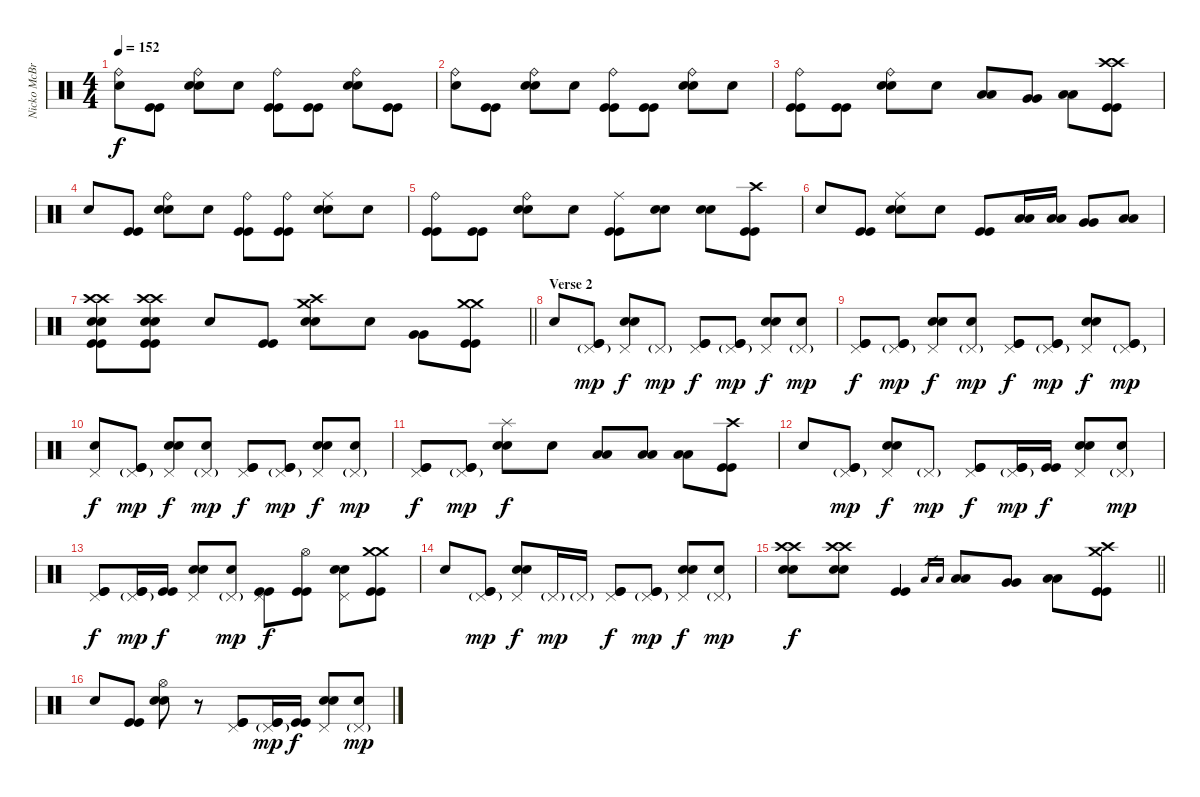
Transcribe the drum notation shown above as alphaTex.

\track ("Nicko McBrain" "Nicko McBr") {instrument percussion}
\staff {score}
\articulation defaults
\ts (4 4)
\tempo 152
\clef neutral
\ks c
("Ride (bell)" "Snare (hit)").8{dy f} ("Kick (hit)" "Kick (hit)").8 ("Ride (bell)" "Electric Snare (hit)" "Electric Snare (hit)").8 "Snare (hit)".8 ("Ride (bell)" "Kick (hit)" "Kick (hit)").8 ("Kick (hit)" "Kick (hit)").8 ("Ride (bell)" "Electric Snare (hit)" "Electric Snare (hit)").8 ("Kick (hit)" "Kick (hit)").8 |
("Ride (bell)" "Snare (hit)").8 ("Kick (hit)" "Kick (hit)").8 ("Ride (bell)" "Electric Snare (hit)" "Electric Snare (hit)").8 "Snare (hit)".8 ("Ride (bell)" "Kick (hit)" "Kick (hit)").8 ("Kick (hit)" "Kick (hit)").8 ("Ride (bell)" "Electric Snare (hit)" "Electric Snare (hit)").8 "Snare (hit)".8 |
("Ride (bell)" "Kick (hit)" "Kick (hit)").8 ("Kick (hit)" "Kick (hit)").8 ("Ride (bell)" "Electric Snare (hit)" "Electric Snare (hit)").8 "Snare (hit)".8 ("Low Tom (hit)" "Low Tom (hit)").8 ("Very Low Tom (hit)" "Very Low Tom (hit)").8 ("Low Floor Tom (hit)" "Low Floor Tom (hit)").8 ("Crash high (hit)" "Crash high (hit)" "Kick (hit)" "Kick (hit)").8 |
"Snare (hit)".8 ("Kick (hit)" "Kick (hit)").8 ("Ride (bell)" "Electric Snare (hit)" "Electric Snare (hit)").8 "Snare (hit)".8 ("Ride (bell)" "Kick (hit)" "Kick (hit)").8 ("Ride (bell)" "Kick (hit)" "Kick (hit)").8 ("Ride (middle)" "Electric Snare (hit)" "Electric Snare (hit)").8 "Snare (hit)".8 |
("Ride (bell)" "Kick (hit)" "Kick (hit)").8 ("Kick (hit)" "Kick (hit)").8 ("Ride (bell)" "Electric Snare (hit)" "Electric Snare (hit)").8 "Snare (hit)".8 ("Ride (middle)" "Kick (hit)" "Kick (hit)").8 ("Electric Snare (hit)" "Electric Snare (hit)").8 ("Electric Snare (hit)" "Electric Snare (hit)").8 ("Crash high (hit)" "Kick (hit)" "Kick (hit)").8 |
"Snare (hit)".8 ("Kick (hit)" "Kick (hit)").8 ("Ride (middle)" "Electric Snare (hit)" "Electric Snare (hit)").8 "Snare (hit)".8 ("Kick (hit)" "Kick (hit)").8 ("Low Tom (hit)" "Low Tom (hit)").16 ("Low Tom (hit)" "Low Tom (hit)").16 ("Very Low Tom (hit)" "Very Low Tom (hit)").8 ("Low Floor Tom (hit)" "Low Floor Tom (hit)").8 |
\barLineRight lightlight
("Crash high (hit)" "Crash high (hit)" "Electric Snare (hit)" "Electric Snare (hit)" "Kick (hit)" "Kick (hit)").8 ("Crash high (hit)" "Crash high (hit)" "Electric Snare (hit)" "Electric Snare (hit)" "Kick (hit)" "Kick (hit)").8 "Snare (hit)".8 ("Kick (hit)" "Kick (hit)").8 ("Crash high (hit)" "Crash medium (hit)" "Electric Snare (hit)" "Electric Snare (hit)").8 "Snare (hit)".8 ("Very Low Tom (hit)" "Very Low Tom (hit)").8 ("Crash medium (hit)" "Crash medium (hit)" "Kick (hit)" "Kick (hit)").8 |
\section ("" "Verse 2")
"Snare (hit)".8 ("Pedal Hi-Hat (hit)"{g} "Kick (hit)" "Kick (hit)").8{dy mp} ("Pedal Hi-Hat (hit)" "Electric Snare (hit)" "Electric Snare (hit)").8{dy f} "Pedal Hi-Hat (hit)"{g}.8{dy mp} ("Pedal Hi-Hat (hit)" "Kick (hit)" "Kick (hit)").8{dy f} ("Pedal Hi-Hat (hit)"{g} "Kick (hit)" "Kick (hit)").8{dy mp} ("Pedal Hi-Hat (hit)" "Electric Snare (hit)" "Electric Snare (hit)").8{dy f} ("Pedal Hi-Hat (hit)"{g} "Snare (hit)").8{dy mp} |
("Pedal Hi-Hat (hit)" "Kick (hit)" "Kick (hit)").8{dy f} ("Pedal Hi-Hat (hit)"{g} "Kick (hit)" "Kick (hit)").8{dy mp} ("Pedal Hi-Hat (hit)" "Electric Snare (hit)" "Electric Snare (hit)").8{dy f} ("Pedal Hi-Hat (hit)"{g} "Snare (hit)").8{dy mp} ("Pedal Hi-Hat (hit)" "Kick (hit)" "Kick (hit)").8{dy f} ("Pedal Hi-Hat (hit)"{g} "Kick (hit)" "Kick (hit)").8{dy mp} ("Pedal Hi-Hat (hit)" "Electric Snare (hit)" "Electric Snare (hit)").8{dy f} ("Pedal Hi-Hat (hit)"{g} "Kick (hit)" "Kick (hit)").8{dy mp} |
("Pedal Hi-Hat (hit)" "Snare (hit)").8{dy f} ("Pedal Hi-Hat (hit)"{g} "Kick (hit)" "Kick (hit)").8{dy mp} ("Pedal Hi-Hat (hit)" "Electric Snare (hit)" "Electric Snare (hit)").8{dy f} ("Pedal Hi-Hat (hit)"{g} "Snare (hit)").8{dy mp} ("Pedal Hi-Hat (hit)" "Kick (hit)" "Kick (hit)").8{dy f} ("Pedal Hi-Hat (hit)"{g} "Kick (hit)" "Kick (hit)").8{dy mp} ("Pedal Hi-Hat (hit)" "Electric Snare (hit)" "Electric Snare (hit)").8{dy f} ("Pedal Hi-Hat (hit)"{g} "Snare (hit)").8{dy mp} |
("Pedal Hi-Hat (hit)" "Kick (hit)" "Kick (hit)").8{dy f} ("Pedal Hi-Hat (hit)"{g} "Kick (hit)" "Kick (hit)").8{dy mp} ("Splash (hit)" "Electric Snare (hit)" "Electric Snare (hit)").8{dy f} "Snare (hit)".8 ("Low Tom (hit)" "Low Tom (hit)").8 ("Low Tom (hit)" "Low Tom (hit)").8 ("Low Tom (hit)" "Low Tom (hit)").8 ("Crash high (hit)" "Kick (hit)" "Kick (hit)").8 |
"Snare (hit)".8 ("Pedal Hi-Hat (hit)"{g} "Kick (hit)" "Kick (hit)").8{dy mp} ("Pedal Hi-Hat (hit)" "Electric Snare (hit)" "Electric Snare (hit)").8{dy f} "Pedal Hi-Hat (hit)"{g}.8{dy mp} ("Pedal Hi-Hat (hit)" "Kick (hit)" "Kick (hit)").8{dy f} ("Pedal Hi-Hat (hit)"{g} "Kick (hit)" "Kick (hit)").16{dy mp} ("Kick (hit)" "Kick (hit)").16{dy f} ("Pedal Hi-Hat (hit)" "Electric Snare (hit)" "Electric Snare (hit)").8 ("Pedal Hi-Hat (hit)"{g} "Snare (hit)").8{dy mp} |
("Pedal Hi-Hat (hit)" "Kick (hit)" "Kick (hit)").8{dy f} ("Pedal Hi-Hat (hit)"{g} "Kick (hit)" "Kick (hit)").16{dy mp} ("Kick (hit)" "Kick (hit)").16{dy f} ("Pedal Hi-Hat (hit)" "Electric Snare (hit)" "Electric Snare (hit)").8 ("Pedal Hi-Hat (hit)"{g} "Snare (hit)").8{dy mp} ("Pedal Hi-Hat (hit)" "Kick (hit)" "Kick (hit)").8{dy f} ("Hi-Hat (open)" "Kick (hit)" "Kick (hit)").8 ("Pedal Hi-Hat (hit)" "Electric Snare (hit)" "Electric Snare (hit)").8 ("Crash medium (hit)" "Crash medium (hit)" "Kick (hit)" "Kick (hit)").8 |
"Snare (hit)".8 ("Pedal Hi-Hat (hit)"{g} "Kick (hit)" "Kick (hit)").8{dy mp} ("Pedal Hi-Hat (hit)" "Electric Snare (hit)" "Electric Snare (hit)").8{dy f} "Pedal Hi-Hat (hit)"{g}.16{dy mp} "Pedal Hi-Hat (hit)"{g}.16 ("Pedal Hi-Hat (hit)" "Kick (hit)" "Kick (hit)").8{dy f} ("Pedal Hi-Hat (hit)"{g} "Kick (hit)" "Kick (hit)").8{dy mp} ("Pedal Hi-Hat (hit)" "Electric Snare (hit)" "Electric Snare (hit)").8{dy f} ("Pedal Hi-Hat (hit)"{g} "Snare (hit)").8{dy mp} |
\barLineRight lightlight
("Crash high (hit)" "Crash high (hit)" "Electric Snare (hit)" "Electric Snare (hit)").8{dy f} ("Crash high (hit)" "Crash high (hit)" "Electric Snare (hit)" "Electric Snare (hit)").8 ("Kick (hit)" "Kick (hit)").4 "Low Tom (hit)".16{gr} "Low Tom (hit)".16{gr} ("Low Tom (hit)" "Low Tom (hit)").8 ("Very Low Tom (hit)" "Very Low Tom (hit)").8 ("Low Floor Tom (hit)" "Low Floor Tom (hit)").8 ("Crash high (hit)" "Crash medium (hit)" "Kick (hit)" "Kick (hit)").8 |
"Snare (hit)".8 ("Kick (hit)" "Kick (hit)").8 ("Hi-Hat (open)" "Electric Snare (hit)" "Electric Snare (hit)").8 r.8 ("Pedal Hi-Hat (hit)" "Kick (hit)" "Kick (hit)").8 ("Pedal Hi-Hat (hit)"{g} "Kick (hit)" "Kick (hit)").16{dy mp} ("Kick (hit)" "Kick (hit)").16{dy f} ("Pedal Hi-Hat (hit)" "Electric Snare (hit)" "Electric Snare (hit)").8 ("Pedal Hi-Hat (hit)"{g} "Snare (hit)").8{dy mp}
